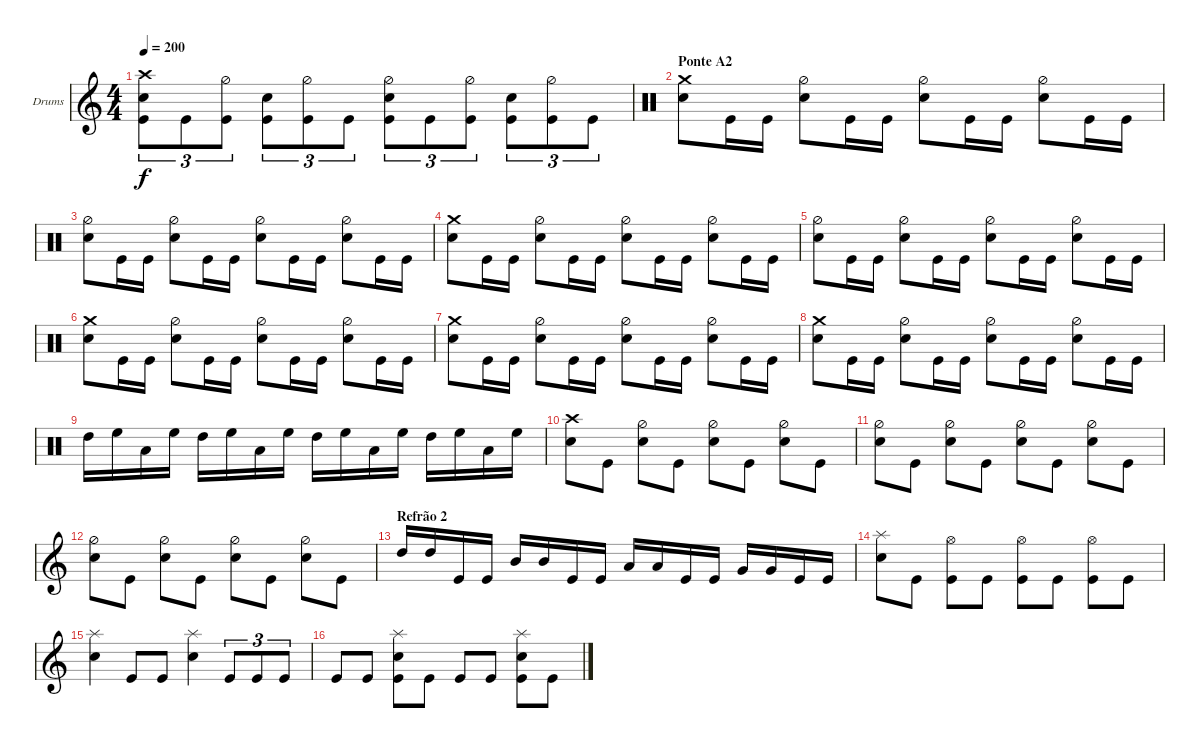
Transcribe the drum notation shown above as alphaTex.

\defaultSystemsLayout 4
\bracketExtendMode groupsimilarinstruments
\firstSystemTrackNameOrientation horizontal
\otherSystemsTrackNameOrientation horizontal
\track ("Drums" "Drums") {instrument percussion}
\staff {score}
\articulation defaults
\ts (4 4)
\tempo 200
\clef g2
\ks c
("Snare (hit) 2" "Crash high (hit)" "Kick (hit)").8{tu (3 2) dy f} "Kick (hit)".8{tu (3 2)} ("Hi-Hat (half)" "Kick (hit)").8{tu (3 2)} ("Kick (hit)" "Snare (hit) 2").8{tu (3 2)} ("Hi-Hat (half)" "Kick (hit)").8{tu (3 2)} "Kick (hit)".8{tu (3 2)} ("Snare (hit) 2" "Kick (hit)" "Hi-Hat (half)").8{tu (3 2)} "Kick (hit)".8{tu (3 2)} ("Hi-Hat (half)" "Kick (hit)").8{tu (3 2)} ("Kick (hit)" "Snare (hit) 2").8{tu (3 2)} ("Hi-Hat (half)" "Kick (hit)").8{tu (3 2)} "Kick (hit)".8{tu (3 2)} |
\section ("" "Ponte A2")
\clef neutral
("Snare (hit) 2" "Crash medium (hit)").8 "Kick (hit)".16 "Kick (hit)".16 ("Snare (hit) 2" "Hi-Hat (half)").8 "Kick (hit)".16 "Kick (hit)".16 ("Snare (hit) 2" "Hi-Hat (half)").8 "Kick (hit)".16 "Kick (hit)".16 ("Snare (hit) 2" "Hi-Hat (half)").8 "Kick (hit)".16 "Kick (hit)".16 |
("Snare (hit) 2" "Hi-Hat (half)").8 "Kick (hit)".16 "Kick (hit)".16 ("Snare (hit) 2" "Hi-Hat (half)").8 "Kick (hit)".16 "Kick (hit)".16 ("Snare (hit) 2" "Hi-Hat (half)").8 "Kick (hit)".16 "Kick (hit)".16 ("Snare (hit) 2" "Hi-Hat (half)").8 "Kick (hit)".16 "Kick (hit)".16 |
("Snare (hit) 2" "Crash medium (hit)").8 "Kick (hit)".16 "Kick (hit)".16 ("Snare (hit) 2" "Hi-Hat (half)").8 "Kick (hit)".16 "Kick (hit)".16 ("Snare (hit) 2" "Hi-Hat (half)").8 "Kick (hit)".16 "Kick (hit)".16 ("Snare (hit) 2" "Hi-Hat (half)").8 "Kick (hit)".16 "Kick (hit)".16 |
("Snare (hit) 2" "Hi-Hat (half)").8 "Kick (hit)".16 "Kick (hit)".16 ("Snare (hit) 2" "Hi-Hat (half)").8 "Kick (hit)".16 "Kick (hit)".16 ("Snare (hit) 2" "Hi-Hat (half)").8 "Kick (hit)".16 "Kick (hit)".16 ("Snare (hit) 2" "Hi-Hat (half)").8 "Kick (hit)".16 "Kick (hit)".16 |
("Snare (hit) 2" "Crash medium (hit)").8 "Kick (hit)".16 "Kick (hit)".16 ("Snare (hit) 2" "Hi-Hat (half)").8 "Kick (hit)".16 "Kick (hit)".16 ("Snare (hit) 2" "Hi-Hat (half)").8 "Kick (hit)".16 "Kick (hit)".16 ("Snare (hit) 2" "Hi-Hat (half)").8 "Kick (hit)".16 "Kick (hit)".16 |
("Snare (hit) 2" "Crash medium (hit)").8 "Kick (hit)".16 "Kick (hit)".16 ("Snare (hit) 2" "Hi-Hat (half)").8 "Kick (hit)".16 "Kick (hit)".16 ("Snare (hit) 2" "Hi-Hat (half)").8 "Kick (hit)".16 "Kick (hit)".16 ("Snare (hit) 2" "Hi-Hat (half)").8 "Kick (hit)".16 "Kick (hit)".16 |
("Snare (hit) 2" "Crash medium (hit)").8 "Kick (hit)".16 "Kick (hit)".16 ("Snare (hit) 2" "Hi-Hat (half)").8 "Kick (hit)".16 "Kick (hit)".16 ("Snare (hit) 2" "Hi-Hat (half)").8 "Kick (hit)".16 "Kick (hit)".16 ("Snare (hit) 2" "Hi-Hat (half)").8 "Kick (hit)".16 "Kick (hit)".16 |
"High Tom (hit)".16 "High Floor Tom (hit)".16 "Low Tom (hit)".16 "High Floor Tom (hit)".16 "High Tom (hit)".16 "High Floor Tom (hit)".16 "Low Tom (hit)".16 "High Floor Tom (hit)".16 "High Tom (hit)".16 "High Floor Tom (hit)".16 "Low Tom (hit)".16 "High Floor Tom (hit)".16 "High Tom (hit)".16 "High Floor Tom (hit)".16 "Low Tom (hit)".16 "High Floor Tom (hit)".16 |
("Snare (hit) 2" "Crash high (hit)").8 "Kick (hit)".8 ("Snare (hit) 2" "Hi-Hat (half)").8 "Kick (hit)".8 ("Snare (hit) 2" "Hi-Hat (half)").8 "Kick (hit)".8 ("Snare (hit) 2" "Hi-Hat (half)").8 "Kick (hit)".8 |
("Snare (hit) 2" "Hi-Hat (half)").8 "Kick (hit)".8 ("Snare (hit) 2" "Hi-Hat (half)").8 "Kick (hit)".8 ("Snare (hit) 2" "Hi-Hat (half)").8 "Kick (hit)".8 ("Snare (hit) 2" "Hi-Hat (half)").8 "Kick (hit)".8 |
\clef g2
("Snare (hit) 2" "Hi-Hat (half)").8 "Kick (hit)".8 ("Snare (hit) 2" "Hi-Hat (half)").8 "Kick (hit)".8 ("Snare (hit) 2" "Hi-Hat (half)").8 "Kick (hit)".8 ("Snare (hit) 2" "Hi-Hat (half)").8 "Kick (hit)".8 |
\section ("" "Refrão 2")
"High Tom (hit)".16 "High Tom (hit)".16 "Kick (hit)".16 "Kick (hit)".16 "Mid Tom (hit)".16 "Mid Tom (hit)".16 "Kick (hit)".16 "Kick (hit)".16 "Low Tom (hit)".16 "Low Tom (hit)".16 "Kick (hit)".16 "Kick (hit)".16 "Very Low Tom (hit)".16 "Very Low Tom (hit)".16 "Kick (hit)".16 "Kick (hit)".16 |
("Snare (hit) 2" "Splash (hit)").8 "Kick (hit)".8 ("Kick (hit)" "Hi-Hat (open)").8 "Kick (hit)".8 ("Kick (hit)" "Hi-Hat (open)").8 "Kick (hit)".8 ("Kick (hit)" "Hi-Hat (open)").8 "Kick (hit)".8 |
("Snare (hit) 2" "Splash (hit)").4 "Kick (hit)".8 "Kick (hit)".8 ("Snare (hit) 2" "Splash (hit)").4 "Kick (hit)".8{tu (3 2)} "Kick (hit)".8{tu (3 2)} "Kick (hit)".8{tu (3 2)} |
"Kick (hit)".8 "Kick (hit)".8 ("Snare (hit) 2" "Splash (hit)" "Kick (hit)").8 "Kick (hit)".8 "Kick (hit)".8 "Kick (hit)".8 ("Kick (hit)" "Snare (hit) 2" "Splash (hit)").8 "Kick (hit)".8
